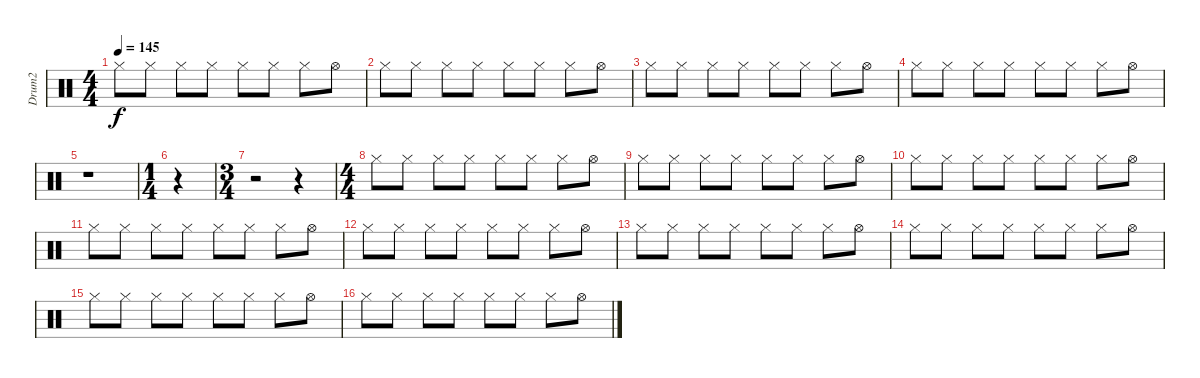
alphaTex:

\track ("Drum2" "Drum2") {instrument percussion}
\staff {score}
\articulation defaults
\ts (4 4)
\tempo 145
\clef neutral
\ks c "Hi-Hat (closed)".8{dy f} "Hi-Hat (closed)".8 "Hi-Hat (closed)".8 "Hi-Hat (closed)".8 "Hi-Hat (closed)".8 "Hi-Hat (closed)".8 "Hi-Hat (closed)".8 "Hi-Hat (open)".8
|
"Hi-Hat (closed)".8 "Hi-Hat (closed)".8 "Hi-Hat (closed)".8 "Hi-Hat (closed)".8 "Hi-Hat (closed)".8 "Hi-Hat (closed)".8 "Hi-Hat (closed)".8 "Hi-Hat (open)".8 |
"Hi-Hat (closed)".8 "Hi-Hat (closed)".8 "Hi-Hat (closed)".8 "Hi-Hat (closed)".8 "Hi-Hat (closed)".8 "Hi-Hat (closed)".8 "Hi-Hat (closed)".8 "Hi-Hat (open)".8 |
"Hi-Hat (closed)".8 "Hi-Hat (closed)".8 "Hi-Hat (closed)".8 "Hi-Hat (closed)".8 "Hi-Hat (closed)".8 "Hi-Hat (closed)".8 "Hi-Hat (closed)".8 "Hi-Hat (open)".8 |
r.1 |
\ts (1 4)
r.4 |
\ts (3 4)
r.2 r.4 |
\ts (4 4)
"Hi-Hat (closed)".8 "Hi-Hat (closed)".8 "Hi-Hat (closed)".8 "Hi-Hat (closed)".8 "Hi-Hat (closed)".8 "Hi-Hat (closed)".8 "Hi-Hat (closed)".8 "Hi-Hat (open)".8 |
"Hi-Hat (closed)".8 "Hi-Hat (closed)".8 "Hi-Hat (closed)".8 "Hi-Hat (closed)".8 "Hi-Hat (closed)".8 "Hi-Hat (closed)".8 "Hi-Hat (closed)".8 "Hi-Hat (open)".8 |
"Hi-Hat (closed)".8 "Hi-Hat (closed)".8 "Hi-Hat (closed)".8 "Hi-Hat (closed)".8 "Hi-Hat (closed)".8 "Hi-Hat (closed)".8 "Hi-Hat (closed)".8 "Hi-Hat (open)".8 |
"Hi-Hat (closed)".8 "Hi-Hat (closed)".8 "Hi-Hat (closed)".8 "Hi-Hat (closed)".8 "Hi-Hat (closed)".8 "Hi-Hat (closed)".8 "Hi-Hat (closed)".8 "Hi-Hat (open)".8 |
"Hi-Hat (closed)".8 "Hi-Hat (closed)".8 "Hi-Hat (closed)".8 "Hi-Hat (closed)".8 "Hi-Hat (closed)".8 "Hi-Hat (closed)".8 "Hi-Hat (closed)".8 "Hi-Hat (open)".8 |
"Hi-Hat (closed)".8 "Hi-Hat (closed)".8 "Hi-Hat (closed)".8 "Hi-Hat (closed)".8 "Hi-Hat (closed)".8 "Hi-Hat (closed)".8 "Hi-Hat (closed)".8 "Hi-Hat (open)".8 |
"Hi-Hat (closed)".8 "Hi-Hat (closed)".8 "Hi-Hat (closed)".8 "Hi-Hat (closed)".8 "Hi-Hat (closed)".8 "Hi-Hat (closed)".8 "Hi-Hat (closed)".8 "Hi-Hat (open)".8 |
"Hi-Hat (closed)".8 "Hi-Hat (closed)".8 "Hi-Hat (closed)".8 "Hi-Hat (closed)".8 "Hi-Hat (closed)".8 "Hi-Hat (closed)".8 "Hi-Hat (closed)".8 "Hi-Hat (open)".8 |
"Hi-Hat (closed)".8 "Hi-Hat (closed)".8 "Hi-Hat (closed)".8 "Hi-Hat (closed)".8 "Hi-Hat (closed)".8 "Hi-Hat (closed)".8 "Hi-Hat (closed)".8 "Hi-Hat (open)".8
